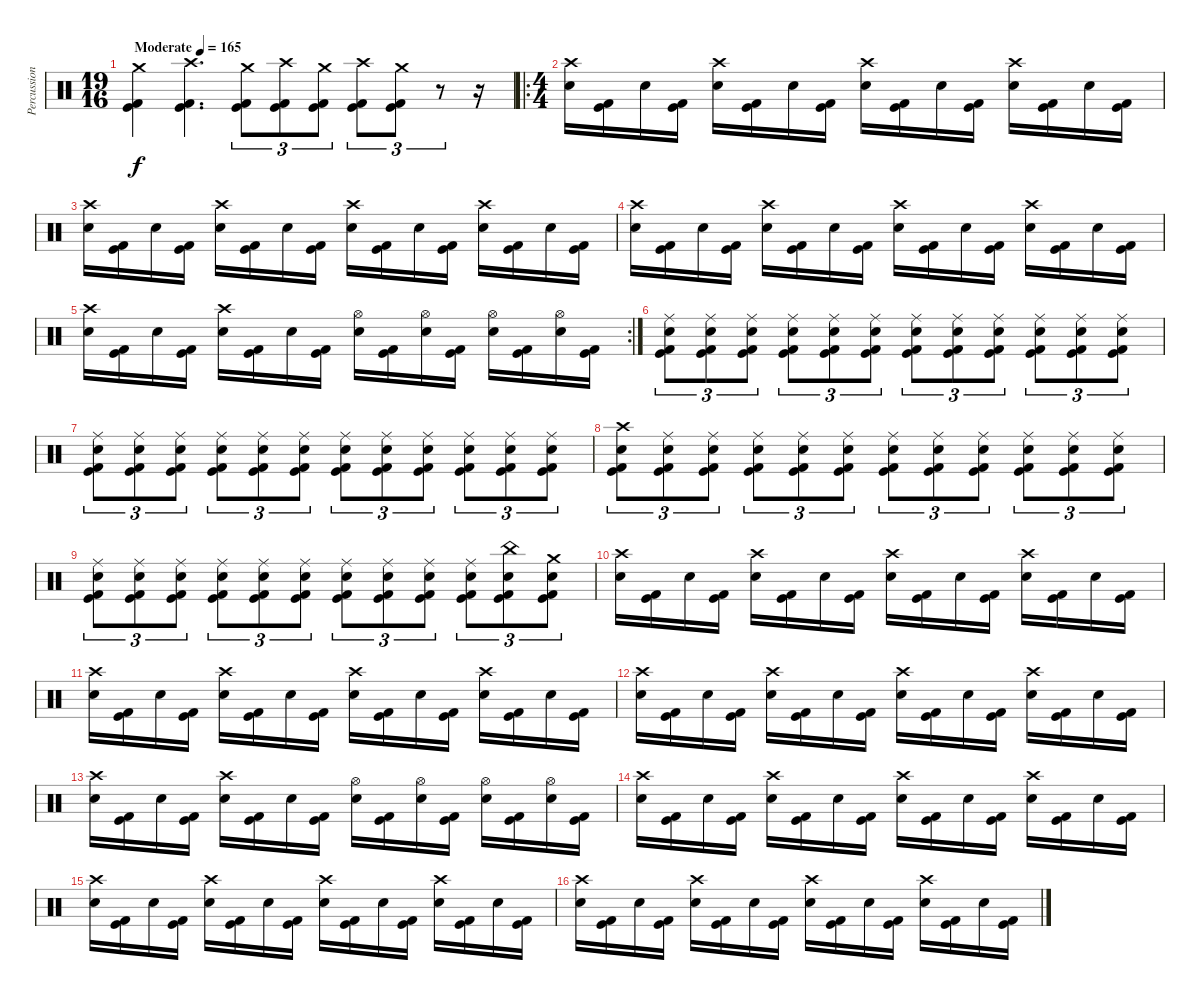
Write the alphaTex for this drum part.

\track ("Percussion" "Percussion") {instrument percussion}
\staff {score}
\articulation defaults
\ts (19 16)
\tempo (165 "Moderate")
\clef neutral
\ks c
("Crash medium (hit)" "Kick (hit)" "Kick (hit) 2").4{dy f} ("Crash high (hit)" "Kick (hit)" "Kick (hit) 2").4{d} ("Crash medium (hit)" "Kick (hit)" "Kick (hit) 2").8{tu (3 2)} ("Crash high (hit)" "Kick (hit)" "Kick (hit) 2").8{tu (3 2)} ("Crash medium (hit)" "Kick (hit)" "Kick (hit) 2").8{tu (3 2)} ("Crash high (hit)" "Kick (hit)" "Kick (hit) 2").8{tu (3 2)} ("Crash medium (hit)" "Kick (hit)" "Kick (hit) 2").8{tu (3 2)} r.8{tu (3 2)} r.16 |
\ro
\ts (4 4)
("Crash high (hit)" "Electric Snare (hit)").16 ("Kick (hit)" "Kick (hit) 2").16 "Electric Snare (hit)".16 ("Kick (hit)" "Kick (hit) 2").16 ("Crash high (hit)" "Electric Snare (hit)").16 ("Kick (hit)" "Kick (hit) 2").16 "Electric Snare (hit)".16 ("Kick (hit)" "Kick (hit) 2").16 ("Crash high (hit)" "Electric Snare (hit)").16 ("Kick (hit)" "Kick (hit) 2").16 "Electric Snare (hit)".16 ("Kick (hit)" "Kick (hit) 2").16 ("Crash high (hit)" "Electric Snare (hit)").16 ("Kick (hit)" "Kick (hit) 2").16 "Electric Snare (hit)".16 ("Kick (hit)" "Kick (hit) 2").16 |
("Crash high (hit)" "Electric Snare (hit)").16 ("Kick (hit)" "Kick (hit) 2").16 "Electric Snare (hit)".16 ("Kick (hit)" "Kick (hit) 2").16 ("Crash high (hit)" "Electric Snare (hit)").16 ("Kick (hit)" "Kick (hit) 2").16 "Electric Snare (hit)".16 ("Kick (hit)" "Kick (hit) 2").16 ("Crash high (hit)" "Electric Snare (hit)").16 ("Kick (hit)" "Kick (hit) 2").16 "Electric Snare (hit)".16 ("Kick (hit)" "Kick (hit) 2").16 ("Crash high (hit)" "Electric Snare (hit)").16 ("Kick (hit)" "Kick (hit) 2").16 "Electric Snare (hit)".16 ("Kick (hit)" "Kick (hit) 2").16 |
("Crash high (hit)" "Electric Snare (hit)").16 ("Kick (hit)" "Kick (hit) 2").16 "Electric Snare (hit)".16 ("Kick (hit)" "Kick (hit) 2").16 ("Crash high (hit)" "Electric Snare (hit)").16 ("Kick (hit)" "Kick (hit) 2").16 "Electric Snare (hit)".16 ("Kick (hit)" "Kick (hit) 2").16 ("Crash high (hit)" "Electric Snare (hit)").16 ("Kick (hit)" "Kick (hit) 2").16 "Electric Snare (hit)".16 ("Kick (hit)" "Kick (hit) 2").16 ("Crash high (hit)" "Electric Snare (hit)").16 ("Kick (hit)" "Kick (hit) 2").16 "Electric Snare (hit)".16 ("Kick (hit)" "Kick (hit) 2").16 |
\rc 2
("Crash high (hit)" "Electric Snare (hit)").16 ("Kick (hit)" "Kick (hit) 2").16 "Electric Snare (hit)".16 ("Kick (hit)" "Kick (hit) 2").16 ("Crash high (hit)" "Electric Snare (hit)").16 ("Kick (hit)" "Kick (hit) 2").16 "Electric Snare (hit)".16 ("Kick (hit)" "Kick (hit) 2").16 ("Hi-Hat (open)" "Electric Snare (hit)").16 ("Kick (hit)" "Kick (hit) 2").16 ("Hi-Hat (open)" "Electric Snare (hit)").16 ("Kick (hit)" "Kick (hit) 2").16 ("Hi-Hat (open)" "Electric Snare (hit)").16 ("Kick (hit)" "Kick (hit) 2").16 ("Hi-Hat (open)" "Electric Snare (hit)").16 ("Kick (hit)" "Kick (hit) 2").16 |
("Ride (middle)" "Electric Snare (hit)" "Kick (hit)" "Kick (hit) 2").8{tu (3 2)} ("Ride (middle)" "Electric Snare (hit)" "Kick (hit)" "Kick (hit) 2").8{tu (3 2)} ("Ride (middle)" "Electric Snare (hit)" "Kick (hit)" "Kick (hit) 2").8{tu (3 2)} ("Ride (middle)" "Electric Snare (hit)" "Kick (hit)" "Kick (hit) 2").8{tu (3 2)} ("Ride (middle)" "Electric Snare (hit)" "Kick (hit)" "Kick (hit) 2").8{tu (3 2)} ("Ride (middle)" "Electric Snare (hit)" "Kick (hit)" "Kick (hit) 2").8{tu (3 2)} ("Ride (middle)" "Electric Snare (hit)" "Kick (hit)" "Kick (hit) 2").8{tu (3 2)} ("Ride (middle)" "Electric Snare (hit)" "Kick (hit)" "Kick (hit) 2").8{tu (3 2)} ("Ride (middle)" "Electric Snare (hit)" "Kick (hit)" "Kick (hit) 2").8{tu (3 2)} ("Ride (middle)" "Electric Snare (hit)" "Kick (hit)" "Kick (hit) 2").8{tu (3 2)} ("Ride (middle)" "Electric Snare (hit)" "Kick (hit)" "Kick (hit) 2").8{tu (3 2)} ("Ride (middle)" "Electric Snare (hit)" "Kick (hit)" "Kick (hit) 2").8{tu (3 2)} |
("Ride (middle)" "Electric Snare (hit)" "Kick (hit)" "Kick (hit) 2").8{tu (3 2)} ("Ride (middle)" "Electric Snare (hit)" "Kick (hit)" "Kick (hit) 2").8{tu (3 2)} ("Ride (middle)" "Electric Snare (hit)" "Kick (hit)" "Kick (hit) 2").8{tu (3 2)} ("Ride (middle)" "Electric Snare (hit)" "Kick (hit)" "Kick (hit) 2").8{tu (3 2)} ("Ride (middle)" "Electric Snare (hit)" "Kick (hit)" "Kick (hit) 2").8{tu (3 2)} ("Ride (middle)" "Electric Snare (hit)" "Kick (hit)" "Kick (hit) 2").8{tu (3 2)} ("Ride (middle)" "Electric Snare (hit)" "Kick (hit)" "Kick (hit) 2").8{tu (3 2)} ("Ride (middle)" "Electric Snare (hit)" "Kick (hit)" "Kick (hit) 2").8{tu (3 2)} ("Ride (middle)" "Electric Snare (hit)" "Kick (hit)" "Kick (hit) 2").8{tu (3 2)} ("Ride (middle)" "Electric Snare (hit)" "Kick (hit)" "Kick (hit) 2").8{tu (3 2)} ("Ride (middle)" "Electric Snare (hit)" "Kick (hit)" "Kick (hit) 2").8{tu (3 2)} ("Ride (middle)" "Electric Snare (hit)" "Kick (hit)" "Kick (hit) 2").8{tu (3 2)} |
("Crash high (hit)" "Electric Snare (hit)" "Kick (hit)" "Kick (hit) 2").8{tu (3 2)} ("Ride (middle)" "Electric Snare (hit)" "Kick (hit)" "Kick (hit) 2").8{tu (3 2)} ("Ride (middle)" "Electric Snare (hit)" "Kick (hit)" "Kick (hit) 2").8{tu (3 2)} ("Ride (middle)" "Electric Snare (hit)" "Kick (hit)" "Kick (hit) 2").8{tu (3 2)} ("Ride (middle)" "Electric Snare (hit)" "Kick (hit)" "Kick (hit) 2").8{tu (3 2)} ("Ride (middle)" "Electric Snare (hit)" "Kick (hit)" "Kick (hit) 2").8{tu (3 2)} ("Ride (middle)" "Electric Snare (hit)" "Kick (hit)" "Kick (hit) 2").8{tu (3 2)} ("Ride (middle)" "Electric Snare (hit)" "Kick (hit)" "Kick (hit) 2").8{tu (3 2)} ("Ride (middle)" "Electric Snare (hit)" "Kick (hit)" "Kick (hit) 2").8{tu (3 2)} ("Ride (middle)" "Electric Snare (hit)" "Kick (hit)" "Kick (hit) 2").8{tu (3 2)} ("Ride (middle)" "Electric Snare (hit)" "Kick (hit)" "Kick (hit) 2").8{tu (3 2)} ("Ride (middle)" "Electric Snare (hit)" "Kick (hit)" "Kick (hit) 2").8{tu (3 2)} |
("Ride (middle)" "Electric Snare (hit)" "Kick (hit)" "Kick (hit) 2").8{tu (3 2)} ("Ride (middle)" "Electric Snare (hit)" "Kick (hit)" "Kick (hit) 2").8{tu (3 2)} ("Ride (middle)" "Electric Snare (hit)" "Kick (hit)" "Kick (hit) 2").8{tu (3 2)} ("Ride (middle)" "Electric Snare (hit)" "Kick (hit)" "Kick (hit) 2").8{tu (3 2)} ("Ride (middle)" "Electric Snare (hit)" "Kick (hit)" "Kick (hit) 2").8{tu (3 2)} ("Ride (middle)" "Electric Snare (hit)" "Kick (hit)" "Kick (hit) 2").8{tu (3 2)} ("Ride (middle)" "Electric Snare (hit)" "Kick (hit)" "Kick (hit) 2").8{tu (3 2)} ("Ride (middle)" "Electric Snare (hit)" "Kick (hit)" "Kick (hit) 2").8{tu (3 2)} ("Ride (middle)" "Electric Snare (hit)" "Kick (hit)" "Kick (hit) 2").8{tu (3 2)} ("Ride (middle)" "Electric Snare (hit)" "Kick (hit)" "Kick (hit) 2").8{tu (3 2)} ("China (hit)" "Electric Snare (hit)" "Kick (hit)" "Kick (hit) 2").8{tu (3 2)} ("Crash medium (hit)" "Electric Snare (hit)" "Kick (hit)" "Kick (hit) 2").8{tu (3 2)} |
("Crash high (hit)" "Electric Snare (hit)").16 ("Kick (hit)" "Kick (hit) 2").16 "Electric Snare (hit)".16 ("Kick (hit)" "Kick (hit) 2").16 ("Crash high (hit)" "Electric Snare (hit)").16 ("Kick (hit)" "Kick (hit) 2").16 "Electric Snare (hit)".16 ("Kick (hit)" "Kick (hit) 2").16 ("Crash high (hit)" "Electric Snare (hit)").16 ("Kick (hit)" "Kick (hit) 2").16 "Electric Snare (hit)".16 ("Kick (hit)" "Kick (hit) 2").16 ("Crash high (hit)" "Electric Snare (hit)").16 ("Kick (hit)" "Kick (hit) 2").16 "Electric Snare (hit)".16 ("Kick (hit)" "Kick (hit) 2").16 |
("Crash high (hit)" "Electric Snare (hit)").16 ("Kick (hit)" "Kick (hit) 2").16 "Electric Snare (hit)".16 ("Kick (hit)" "Kick (hit) 2").16 ("Crash high (hit)" "Electric Snare (hit)").16 ("Kick (hit)" "Kick (hit) 2").16 "Electric Snare (hit)".16 ("Kick (hit)" "Kick (hit) 2").16 ("Crash high (hit)" "Electric Snare (hit)").16 ("Kick (hit)" "Kick (hit) 2").16 "Electric Snare (hit)".16 ("Kick (hit)" "Kick (hit) 2").16 ("Crash high (hit)" "Electric Snare (hit)").16 ("Kick (hit)" "Kick (hit) 2").16 "Electric Snare (hit)".16 ("Kick (hit)" "Kick (hit) 2").16 |
("Crash high (hit)" "Electric Snare (hit)").16 ("Kick (hit)" "Kick (hit) 2").16 "Electric Snare (hit)".16 ("Kick (hit)" "Kick (hit) 2").16 ("Crash high (hit)" "Electric Snare (hit)").16 ("Kick (hit)" "Kick (hit) 2").16 "Electric Snare (hit)".16 ("Kick (hit)" "Kick (hit) 2").16 ("Crash high (hit)" "Electric Snare (hit)").16 ("Kick (hit)" "Kick (hit) 2").16 "Electric Snare (hit)".16 ("Kick (hit)" "Kick (hit) 2").16 ("Crash high (hit)" "Electric Snare (hit)").16 ("Kick (hit)" "Kick (hit) 2").16 "Electric Snare (hit)".16 ("Kick (hit)" "Kick (hit) 2").16 |
("Crash high (hit)" "Electric Snare (hit)").16 ("Kick (hit)" "Kick (hit) 2").16 "Electric Snare (hit)".16 ("Kick (hit)" "Kick (hit) 2").16 ("Crash high (hit)" "Electric Snare (hit)").16 ("Kick (hit)" "Kick (hit) 2").16 "Electric Snare (hit)".16 ("Kick (hit)" "Kick (hit) 2").16 ("Hi-Hat (open)" "Electric Snare (hit)").16 ("Kick (hit)" "Kick (hit) 2").16 ("Hi-Hat (open)" "Electric Snare (hit)").16 ("Kick (hit)" "Kick (hit) 2").16 ("Hi-Hat (open)" "Electric Snare (hit)").16 ("Kick (hit)" "Kick (hit) 2").16 ("Hi-Hat (open)" "Electric Snare (hit)").16 ("Kick (hit)" "Kick (hit) 2").16 |
("Crash high (hit)" "Electric Snare (hit)").16 ("Kick (hit)" "Kick (hit) 2").16 "Electric Snare (hit)".16 ("Kick (hit)" "Kick (hit) 2").16 ("Crash high (hit)" "Electric Snare (hit)").16 ("Kick (hit)" "Kick (hit) 2").16 "Electric Snare (hit)".16 ("Kick (hit)" "Kick (hit) 2").16 ("Crash high (hit)" "Electric Snare (hit)").16 ("Kick (hit)" "Kick (hit) 2").16 "Electric Snare (hit)".16 ("Kick (hit)" "Kick (hit) 2").16 ("Crash high (hit)" "Electric Snare (hit)").16 ("Kick (hit)" "Kick (hit) 2").16 "Electric Snare (hit)".16 ("Kick (hit)" "Kick (hit) 2").16 |
("Crash high (hit)" "Electric Snare (hit)").16 ("Kick (hit)" "Kick (hit) 2").16 "Electric Snare (hit)".16 ("Kick (hit)" "Kick (hit) 2").16 ("Crash high (hit)" "Electric Snare (hit)").16 ("Kick (hit)" "Kick (hit) 2").16 "Electric Snare (hit)".16 ("Kick (hit)" "Kick (hit) 2").16 ("Crash high (hit)" "Electric Snare (hit)").16 ("Kick (hit)" "Kick (hit) 2").16 "Electric Snare (hit)".16 ("Kick (hit)" "Kick (hit) 2").16 ("Crash high (hit)" "Electric Snare (hit)").16 ("Kick (hit)" "Kick (hit) 2").16 "Electric Snare (hit)".16 ("Kick (hit)" "Kick (hit) 2").16 |
("Crash high (hit)" "Electric Snare (hit)").16 ("Kick (hit)" "Kick (hit) 2").16 "Electric Snare (hit)".16 ("Kick (hit)" "Kick (hit) 2").16 ("Crash high (hit)" "Electric Snare (hit)").16 ("Kick (hit)" "Kick (hit) 2").16 "Electric Snare (hit)".16 ("Kick (hit)" "Kick (hit) 2").16 ("Crash high (hit)" "Electric Snare (hit)").16 ("Kick (hit)" "Kick (hit) 2").16 "Electric Snare (hit)".16 ("Kick (hit)" "Kick (hit) 2").16 ("Crash high (hit)" "Electric Snare (hit)").16 ("Kick (hit)" "Kick (hit) 2").16 "Electric Snare (hit)".16 ("Kick (hit)" "Kick (hit) 2").16
